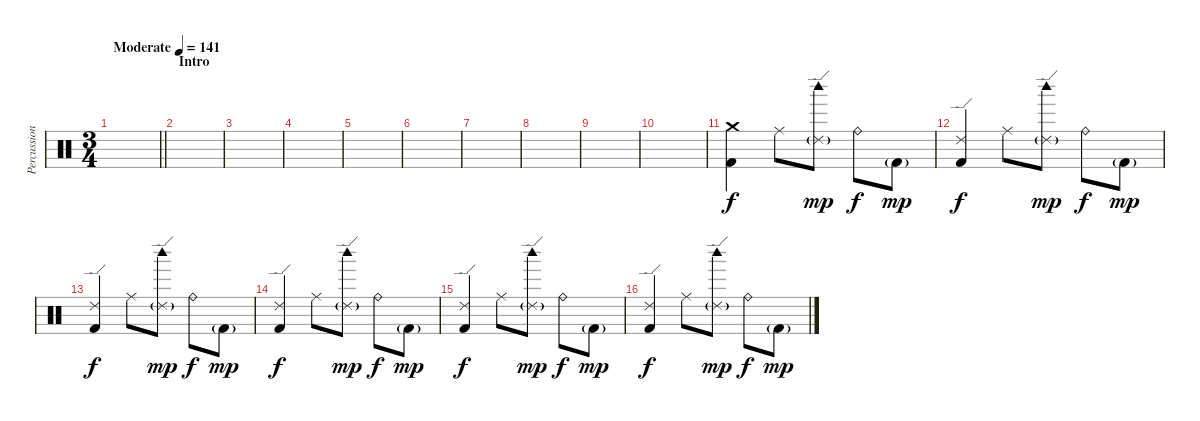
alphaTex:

\track ("Percussion" "Percussion") {instrument percussion}
\staff {score}
\articulation defaults
\ts (3 4)
\tempo (141 "Moderate")
\clef neutral
\barLineRight lightlight
\ks c
|
\section ("" "Intro")
|
|
|
|
|
|
|
|
|
("Crash medium (hit)" "Kick (hit) 2").4 "Ride (middle)".8 ("Ride (edge) 2"{g} "Woodblock high (hit)").8{dy mp} "Ride (bell)".8{dy f} "Kick (hit) 2"{g}.8{dy mp} |
("Ride (edge) 2" "Kick (hit) 2").4{dy f} "Ride (middle)".8 ("Ride (edge) 2"{g} "Woodblock high (hit)").8{dy mp} "Ride (bell)".8{dy f} "Kick (hit) 2"{g}.8{dy mp} |
("Ride (edge) 2" "Kick (hit) 2").4{dy f} "Ride (middle)".8 ("Ride (edge) 2"{g} "Woodblock high (hit)").8{dy mp} "Ride (bell)".8{dy f} "Kick (hit) 2"{g}.8{dy mp} |
("Ride (edge) 2" "Kick (hit) 2").4{dy f} "Ride (middle)".8 ("Ride (edge) 2"{g} "Woodblock high (hit)").8{dy mp} "Ride (bell)".8{dy f} "Kick (hit) 2"{g}.8{dy mp} |
("Ride (edge) 2" "Kick (hit) 2").4{dy f} "Ride (middle)".8 ("Ride (edge) 2"{g} "Woodblock high (hit)").8{dy mp} "Ride (bell)".8{dy f} "Kick (hit) 2"{g}.8{dy mp} |
("Ride (edge) 2" "Kick (hit) 2").4{dy f} "Ride (middle)".8 ("Ride (edge) 2"{g} "Woodblock high (hit)").8{dy mp} "Ride (bell)".8{dy f} "Kick (hit) 2"{g}.8{dy mp}
